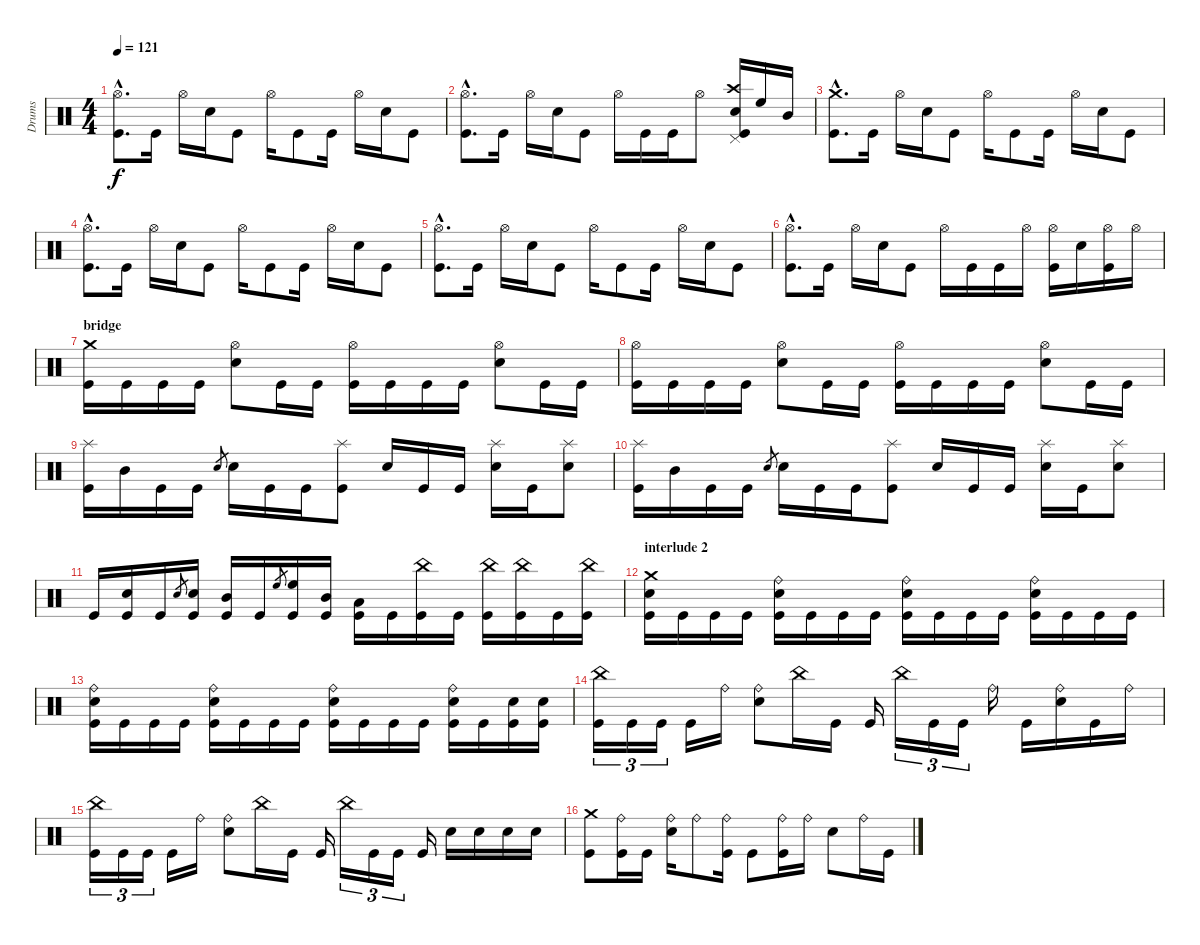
\track ("Drums" "Drums") {instrument percussion}
\staff {score}
\articulation defaults
\ts (4 4)
\tempo 121
\clef neutral
\ks c
("Kick (hit)"{hac} "Hi-Hat (open)"{hac}).8{d dy f} "Kick (hit)".16 "Hi-Hat (open)".16 "Electric Snare (hit)".16 "Kick (hit)".8 "Hi-Hat (open)".16 "Kick (hit)".8 "Kick (hit)".16 "Hi-Hat (open)".16 "Electric Snare (hit)".16 "Kick (hit)".8 |
("Kick (hit)"{hac} "Hi-Hat (open)"{hac}).8{d} "Kick (hit)".16 "Hi-Hat (open)".16 "Electric Snare (hit)".16 "Kick (hit)".8 "Hi-Hat (open)".16 "Kick (hit)".16 "Kick (hit)".16 "Hi-Hat (open)".8 ("Kick (hit)" "Electric Snare (hit)" "Crash high (hit)" "Pedal Hi-Hat (hit)").16 "High Floor Tom (hit)".16 "Mid Tom (hit)".16 |
("Kick (hit)"{hac} "Crash medium (hit)"{hac}).8{d} "Kick (hit)".16 "Hi-Hat (open)".16 "Electric Snare (hit)".16 "Kick (hit)".8 "Hi-Hat (open)".16 "Kick (hit)".8 "Kick (hit)".16 "Hi-Hat (open)".16 "Electric Snare (hit)".16 "Kick (hit)".8 |
("Kick (hit)"{hac} "Hi-Hat (open)"{hac}).8{d} "Kick (hit)".16 "Hi-Hat (open)".16 "Electric Snare (hit)".16 "Kick (hit)".8 "Hi-Hat (open)".16 "Kick (hit)".8 "Kick (hit)".16 "Hi-Hat (open)".16 "Electric Snare (hit)".16 "Kick (hit)".8 |
("Kick (hit)"{hac} "Hi-Hat (open)"{hac}).8{d} "Kick (hit)".16 "Hi-Hat (open)".16 "Electric Snare (hit)".16 "Kick (hit)".8 "Hi-Hat (open)".16 "Kick (hit)".8 "Kick (hit)".16 "Hi-Hat (open)".16 "Electric Snare (hit)".16 "Kick (hit)".8 |
("Kick (hit)"{hac} "Hi-Hat (open)"{hac}).8{d} "Kick (hit)".16 "Hi-Hat (open)".16 "Electric Snare (hit)".16 "Kick (hit)".8 "Hi-Hat (open)".16 "Kick (hit)".16 "Kick (hit)".16 "Hi-Hat (open)".16 ("Kick (hit)" "Hi-Hat (open)").16 "Electric Snare (hit)".16 ("Kick (hit)" "Hi-Hat (open)").16 "Hi-Hat (open)".16 |
\section ("" "bridge")
("Kick (hit)" "Crash medium (hit)").16 "Kick (hit)".16 "Kick (hit)".16 "Kick (hit)".16 ("Electric Snare (hit)" "Hi-Hat (open)").8 "Kick (hit)".16 "Kick (hit)".16 ("Kick (hit)" "Hi-Hat (open)").16 "Kick (hit)".16 "Kick (hit)".16 "Kick (hit)".16 ("Electric Snare (hit)" "Hi-Hat (open)").8 "Kick (hit)".16 "Kick (hit)".16 |
("Kick (hit)" "Hi-Hat (open)").16 "Kick (hit)".16 "Kick (hit)".16 "Kick (hit)".16 ("Electric Snare (hit)" "Hi-Hat (open)").8 "Kick (hit)".16 "Kick (hit)".16 ("Kick (hit)" "Hi-Hat (open)").16 "Kick (hit)".16 "Kick (hit)".16 "Kick (hit)".16 ("Electric Snare (hit)" "Hi-Hat (open)").8 "Kick (hit)".16 "Kick (hit)".16 |
("Kick (hit)" "Splash (hit)").16 "Mid Tom (hit)".16 "Kick (hit)".16 "Kick (hit)".16 "Electric Snare (hit)".8{gr} "Electric Snare (hit)".16 "Kick (hit)".16 "Kick (hit)".16 ("Kick (hit)" "Splash (hit)").8 "Electric Snare (hit)".16 "Kick (hit)".16 "Kick (hit)".16 ("Electric Snare (hit)" "Splash (hit)").16 "Kick (hit)".16 ("Electric Snare (hit)" "Splash (hit)").8 |
("Kick (hit)" "Splash (hit)").16 "Mid Tom (hit)".16 "Kick (hit)".16 "Kick (hit)".16 "Electric Snare (hit)".8{gr} "Electric Snare (hit)".16 "Kick (hit)".16 "Kick (hit)".16 ("Kick (hit)" "Splash (hit)").8 "Electric Snare (hit)".16 "Kick (hit)".16 "Kick (hit)".16 ("Electric Snare (hit)" "Splash (hit)").16 "Kick (hit)".16 ("Electric Snare (hit)" "Splash (hit)").8 |
"Kick (hit)".16 ("Kick (hit)" "Electric Snare (hit)").16 "Kick (hit)".16 "Electric Snare (hit)".8{gr} ("Kick (hit)" "Electric Snare (hit)").16 ("Kick (hit)" "Mid Tom (hit)").16 "Kick (hit)".16 "High Floor Tom (hit)".8{gr} ("Kick (hit)" "High Floor Tom (hit)").16 ("Kick (hit)" "Mid Tom (hit)").16 ("Kick (hit)" "Low Tom (hit)").16 "Kick (hit)".16 ("Kick (hit)" "China (hit)").16 "Kick (hit)".16 ("Kick (hit)" "China (hit)").16 ("Kick (hit)" "China (hit)").16 "Kick (hit)".16 ("Kick (hit)" "China (hit)").16 |
\section ("" "interlude 2")
("Kick (hit)" "Crash medium (hit)" "Electric Snare (hit)").16 "Kick (hit)".16 "Kick (hit)".16 "Kick (hit)".16 ("Kick (hit)" "Electric Snare (hit)" "Ride (bell)").16 "Kick (hit)".16 "Kick (hit)".16 "Kick (hit)".16 ("Kick (hit)" "Electric Snare (hit)" "Ride (bell)").16 "Kick (hit)".16 "Kick (hit)".16 "Kick (hit)".16 ("Kick (hit)" "Electric Snare (hit)" "Ride (bell)").16 "Kick (hit)".16 "Kick (hit)".16 "Kick (hit)".16 |
("Kick (hit)" "Electric Snare (hit)" "Ride (bell)").16 "Kick (hit)".16 "Kick (hit)".16 "Kick (hit)".16 ("Kick (hit)" "Electric Snare (hit)" "Ride (bell)").16 "Kick (hit)".16 "Kick (hit)".16 "Kick (hit)".16 ("Kick (hit)" "Electric Snare (hit)" "Ride (bell)").16 "Kick (hit)".16 "Kick (hit)".16 "Kick (hit)".16 ("Kick (hit)" "Electric Snare (hit)" "Ride (bell)").16 "Kick (hit)".16 ("Kick (hit)" "Electric Snare (hit)").16 ("Kick (hit)" "Electric Snare (hit)").16 |
("Kick (hit)" "China (hit)").16{tu (3 2)} "Kick (hit)".16{tu (3 2)} "Kick (hit)".16{tu (3 2)} "Kick (hit)".16 "Ride (bell)".16 ("Electric Snare (hit)" "Ride (bell)").8 "China (hit)".16 "Kick (hit)".16 "Kick (hit)".16 "China (hit)".16{tu (3 2)} "Kick (hit)".16{tu (3 2)} "Kick (hit)".16{tu (3 2)} "Ride (bell)".16 "Kick (hit)".16 ("Electric Snare (hit)" "Ride (bell)").16 "Kick (hit)".16 "Ride (bell)".16 |
("Kick (hit)" "China (hit)").16{tu (3 2)} "Kick (hit)".16{tu (3 2)} "Kick (hit)".16{tu (3 2)} "Kick (hit)".16 "Ride (bell)".16 ("Electric Snare (hit)" "Ride (bell)").8 "China (hit)".16 "Kick (hit)".16 "Kick (hit)".16 "China (hit)".16{tu (3 2)} "Kick (hit)".16{tu (3 2)} "Kick (hit)".16{tu (3 2)} "Kick (hit)".16 "Electric Snare (hit)".16 "Electric Snare (hit)".16 "Electric Snare (hit)".16 "Electric Snare (hit)".16 |
("Kick (hit)" "Crash medium (hit)").8 ("Kick (hit)" "Ride (bell)").16 "Kick (hit)".16 ("Electric Snare (hit)" "Ride (bell)").16 "Ride (bell)".8 ("Kick (hit)" "Ride (bell)").16 "Kick (hit)".8 ("Kick (hit)" "Ride (bell)").16 "Ride (bell)".16 "Electric Snare (hit)".8 "Ride (bell)".16 "Kick (hit)".16
